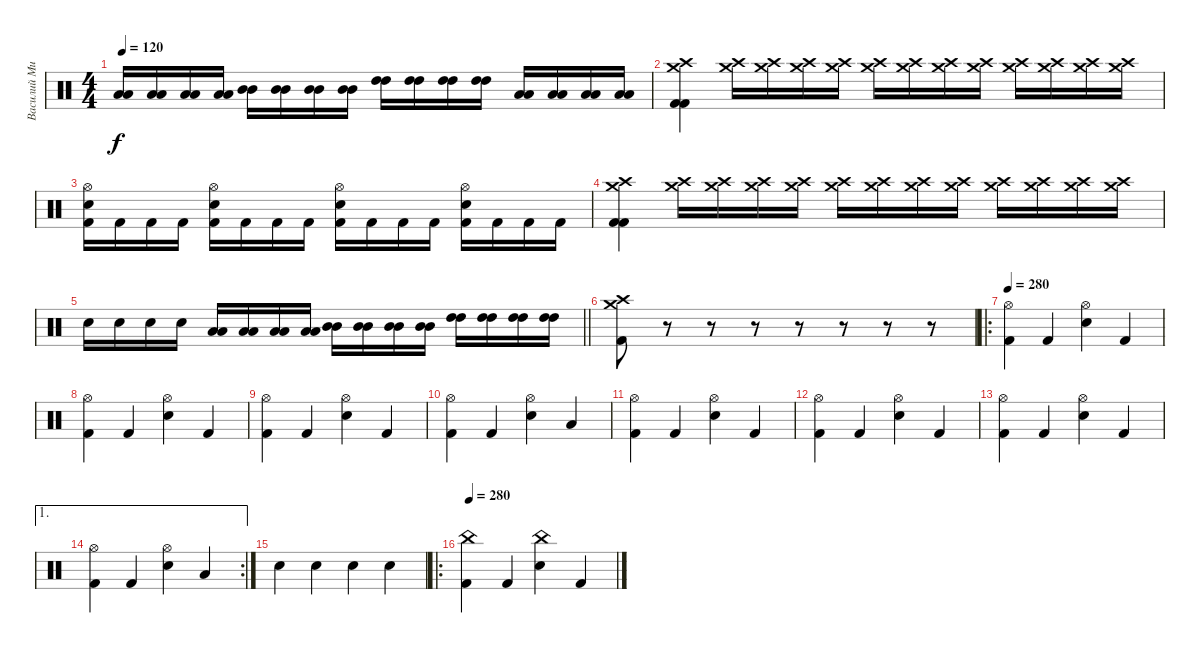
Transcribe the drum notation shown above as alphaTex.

\track ("Василий Михалыч-ударные" "Василий Ми") {instrument percussion}
\staff {score}
\articulation defaults
\ts (4 4)
\tempo 120
\clef neutral
\ks c
("Low Tom (hit)" "Low Tom (hit)").16{dy f} ("Low Tom (hit)" "Low Tom (hit)").16 ("Low Tom (hit)" "Low Tom (hit)").16 ("Low Tom (hit)" "Low Tom (hit)").16 ("Mid Tom (hit)" "Mid Tom (hit)").16 ("Mid Tom (hit)" "Mid Tom (hit)").16 ("Mid Tom (hit)" "Mid Tom (hit)").16 ("Mid Tom (hit)" "Mid Tom (hit)").16 ("High Tom (hit)" "High Tom (hit)").16 ("High Tom (hit)" "High Tom (hit)").16 ("High Tom (hit)" "High Tom (hit)").16 ("High Tom (hit)" "High Tom (hit)").16 ("Low Tom (hit)" "Low Tom (hit)").16 ("Low Tom (hit)" "Low Tom (hit)").16 ("Low Tom (hit)" "Low Tom (hit)").16 ("Low Tom (hit)" "Low Tom (hit)").16 |
("Kick (hit) 2" "Kick (hit) 2" "Crash high (hit)" "Crash medium (hit)").4 ("Crash high (hit)" "Crash medium (hit)").16 ("Crash high (hit)" "Crash medium (hit)").16 ("Crash high (hit)" "Crash medium (hit)").16 ("Crash high (hit)" "Crash medium (hit)").16 ("Crash high (hit)" "Crash medium (hit)").16 ("Crash high (hit)" "Crash medium (hit)").16 ("Crash high (hit)" "Crash medium (hit)").16 ("Crash high (hit)" "Crash medium (hit)").16 ("Crash high (hit)" "Crash medium (hit)").16 ("Crash high (hit)" "Crash medium (hit)").16 ("Crash high (hit)" "Crash medium (hit)").16 ("Crash high (hit)" "Crash medium (hit)").16 |
("Kick (hit) 2" "Electric Snare (hit)" "Hi-Hat (open)").16 "Kick (hit) 2".16 "Kick (hit) 2".16 "Kick (hit) 2".16 ("Kick (hit) 2" "Electric Snare (hit)" "Hi-Hat (open)").16 "Kick (hit) 2".16 "Kick (hit) 2".16 "Kick (hit) 2".16 ("Kick (hit) 2" "Electric Snare (hit)" "Hi-Hat (open)").16 "Kick (hit) 2".16 "Kick (hit) 2".16 "Kick (hit) 2".16 ("Kick (hit) 2" "Electric Snare (hit)" "Hi-Hat (open)").16 "Kick (hit) 2".16 "Kick (hit) 2".16 "Kick (hit) 2".16 |
("Kick (hit) 2" "Kick (hit) 2" "Crash high (hit)" "Crash medium (hit)").4 ("Crash high (hit)" "Crash medium (hit)").16 ("Crash high (hit)" "Crash medium (hit)").16 ("Crash high (hit)" "Crash medium (hit)").16 ("Crash high (hit)" "Crash medium (hit)").16 ("Crash high (hit)" "Crash medium (hit)").16 ("Crash high (hit)" "Crash medium (hit)").16 ("Crash high (hit)" "Crash medium (hit)").16 ("Crash high (hit)" "Crash medium (hit)").16 ("Crash high (hit)" "Crash medium (hit)").16 ("Crash high (hit)" "Crash medium (hit)").16 ("Crash high (hit)" "Crash medium (hit)").16 ("Crash high (hit)" "Crash medium (hit)").16 |
\barLineRight lightlight "Electric Snare (hit)".16 "Electric Snare (hit)".16 "Electric Snare (hit)".16 "Electric Snare (hit)".16
("Low Tom (hit)" "Low Tom (hit)").16 ("Low Tom (hit)" "Low Tom (hit)").16 ("Low Tom (hit)" "Low Tom (hit)").16 ("Low Tom (hit)" "Low Tom (hit)").16 ("Mid Tom (hit)" "Mid Tom (hit)").16 ("Mid Tom (hit)" "Mid Tom (hit)").16 ("Mid Tom (hit)" "Mid Tom (hit)").16 ("Mid Tom (hit)" "Mid Tom (hit)").16 ("High Tom (hit)" "High Tom (hit)").16 ("High Tom (hit)" "High Tom (hit)").16 ("High Tom (hit)" "High Tom (hit)").16 ("High Tom (hit)" "High Tom (hit)").16 |
("Kick (hit) 2" "Crash high (hit)" "Crash medium (hit)").8 r.8 r.8 r.8 r.8 r.8 r.8 r.8 |
\ro
\tempo 280
("Kick (hit) 2" "Hi-Hat (open)").4 "Kick (hit) 2".4 ("Snare (hit) 2" "Hi-Hat (open)").4 "Kick (hit) 2".4 |
("Kick (hit) 2" "Hi-Hat (open)").4 "Kick (hit) 2".4 ("Snare (hit) 2" "Hi-Hat (open)").4 "Kick (hit) 2".4 |
("Kick (hit) 2" "Hi-Hat (open)").4 "Kick (hit) 2".4 ("Snare (hit) 2" "Hi-Hat (open)").4 "Kick (hit) 2".4 |
("Kick (hit) 2" "Hi-Hat (open)").4 "Kick (hit) 2".4 ("Snare (hit) 2" "Hi-Hat (open)").4 "Low Tom (hit)".4 |
("Kick (hit) 2" "Hi-Hat (open)").4 "Kick (hit) 2".4 ("Snare (hit) 2" "Hi-Hat (open)").4 "Kick (hit) 2".4 |
("Kick (hit) 2" "Hi-Hat (open)").4 "Kick (hit) 2".4 ("Snare (hit) 2" "Hi-Hat (open)").4 "Kick (hit) 2".4 |
("Kick (hit) 2" "Hi-Hat (open)").4 "Kick (hit) 2".4 ("Snare (hit) 2" "Hi-Hat (open)").4 "Kick (hit) 2".4 |
\ae 1
\rc 2
("Kick (hit) 2" "Hi-Hat (open)").4 "Kick (hit) 2".4 ("Snare (hit) 2" "Hi-Hat (open)").4 "Low Tom (hit)".4 |
"Snare (hit) 2".4 "Snare (hit) 2".4 "Snare (hit) 2".4 "Snare (hit) 2".4 |
\ro
\tempo 280
("Kick (hit) 2" "China (hit)").4 "Kick (hit) 2".4 ("Snare (hit) 2" "China (hit)").4 "Kick (hit) 2".4
